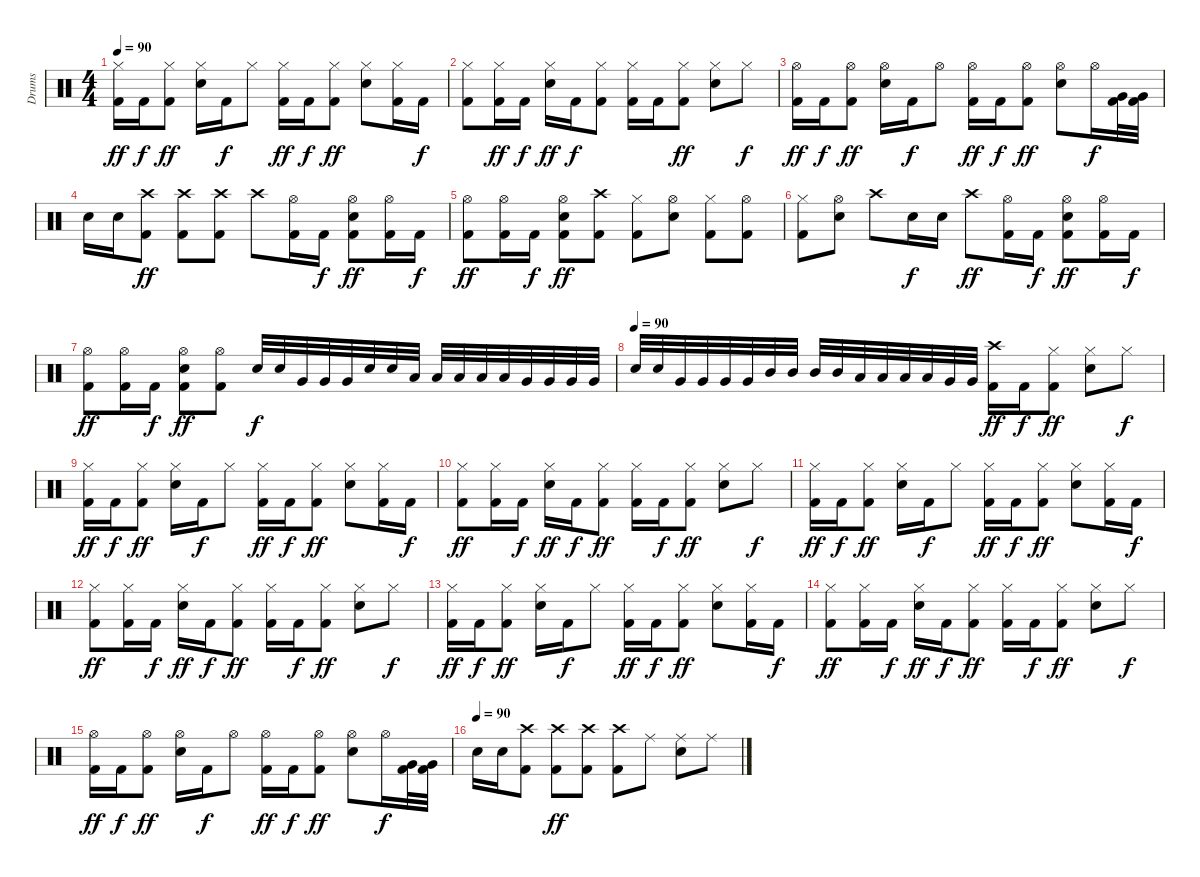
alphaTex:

\track ("Drums" "Drums") {instrument percussion}
\staff {score}
\articulation defaults
\ts (4 4)
\tempo 90
\clef neutral
\ks c
("Hi-Hat (closed)" "Kick (hit) 2").16{dy ff} "Kick (hit) 2".16{dy f} ("Hi-Hat (closed)" "Kick (hit) 2").8{dy ff} ("Hi-Hat (closed)" "Electric Snare (hit)").16 "Kick (hit) 2".16{dy f} "Hi-Hat (closed)".8 ("Hi-Hat (closed)" "Kick (hit) 2").16{dy ff} "Kick (hit) 2".16{dy f} ("Hi-Hat (closed)" "Kick (hit) 2").8{dy ff} ("Hi-Hat (closed)" "Electric Snare (hit)").8 ("Hi-Hat (closed)" "Kick (hit) 2").16 "Kick (hit) 2".16{dy f} |
("Hi-Hat (closed)" "Kick (hit) 2").8 ("Hi-Hat (closed)" "Kick (hit) 2").16{dy ff} "Kick (hit) 2".16{dy f} ("Hi-Hat (closed)" "Electric Snare (hit)").16{dy ff} "Kick (hit) 2".16{dy f} ("Hi-Hat (closed)" "Kick (hit) 2").8 ("Hi-Hat (closed)" "Kick (hit) 2").16 "Kick (hit) 2".16 ("Hi-Hat (closed)" "Kick (hit) 2").8{dy ff} ("Hi-Hat (closed)" "Electric Snare (hit)").8 "Hi-Hat (closed)".8{dy f} |
("Hi-Hat (open)" "Kick (hit) 2").16{dy ff} "Kick (hit) 2".16{dy f} ("Hi-Hat (open)" "Kick (hit) 2").8{dy ff} ("Hi-Hat (open)" "Electric Snare (hit)").16 "Kick (hit) 2".16{dy f} "Hi-Hat (open)".8 ("Hi-Hat (open)" "Kick (hit) 2").16{dy ff} "Kick (hit) 2".16{dy f} ("Hi-Hat (open)" "Kick (hit) 2").8{dy ff} ("Hi-Hat (open)" "Electric Snare (hit)").8 "Hi-Hat (open)".16{dy f} ("Very Low Tom (hit)" "Kick (hit) 2").32 ("Very Low Tom (hit)" "Kick (hit) 2").32 |
"Electric Snare (hit)".16 "Electric Snare (hit)".16 ("Crash high (hit)" "Kick (hit) 2").8{dy ff} ("Crash high (hit)" "Kick (hit) 2").8 ("Crash high (hit)" "Kick (hit) 2").8 "Crash high (hit)".8 ("Hi-Hat (open)" "Kick (hit) 2").16 "Kick (hit) 2".16{dy f} ("Hi-Hat (open)" "Electric Snare (hit)" "Kick (hit) 2").8{dy ff} ("Hi-Hat (open)" "Kick (hit) 2").16 "Kick (hit) 2".16{dy f} |
("Hi-Hat (open)" "Kick (hit) 2").8{dy ff} ("Hi-Hat (open)" "Kick (hit) 2").16 "Kick (hit) 2".16{dy f} ("Hi-Hat (open)" "Electric Snare (hit)" "Kick (hit) 2").8{dy ff} ("Crash high (hit)" "Kick (hit) 2").8 ("Hi-Hat (closed)" "Kick (hit) 2").8 ("Hi-Hat (open)" "Electric Snare (hit)").8 ("Hi-Hat (closed)" "Kick (hit) 2").8 ("Hi-Hat (open)" "Kick (hit) 2").8 |
("Hi-Hat (closed)" "Kick (hit) 2").8 ("Hi-Hat (open)" "Electric Snare (hit)").8 "Crash high (hit)".8 "Electric Snare (hit)".16{dy f} "Electric Snare (hit)".16 "Crash high (hit)".8{dy ff} ("Hi-Hat (open)" "Kick (hit) 2").16 "Kick (hit) 2".16{dy f} ("Hi-Hat (open)" "Electric Snare (hit)" "Kick (hit) 2").8{dy ff} ("Hi-Hat (open)" "Kick (hit) 2").16 "Kick (hit) 2".16{dy f} |
("Hi-Hat (open)" "Kick (hit) 2").8{dy ff} ("Hi-Hat (open)" "Kick (hit) 2").16 "Kick (hit) 2".16{dy f} ("Hi-Hat (open)" "Electric Snare (hit)" "Kick (hit) 2").8{dy ff} ("Hi-Hat (open)" "Kick (hit) 2").8 "Electric Snare (hit)".32{dy f} "Electric Snare (hit)".32 "Very Low Tom (hit)".32 "Very Low Tom (hit)".32 "Very Low Tom (hit)".32 "Electric Snare (hit)".32 "Electric Snare (hit)".32 "Low Tom (hit)".32 "Low Tom (hit)".32 "Low Tom (hit)".32 "Low Tom (hit)".32 "Low Tom (hit)".32 "Very Low Tom (hit)".32 "Very Low Tom (hit)".32 "Very Low Tom (hit)".32 "Very Low Tom (hit)".32 |
\tempo (90)
"Electric Snare (hit)".32 "Electric Snare (hit)".32 "Very Low Tom (hit)".32 "Very Low Tom (hit)".32 "Very Low Tom (hit)".32 "Very Low Tom (hit)".32 "Mid Tom (hit)".32 "Mid Tom (hit)".32 "Mid Tom (hit)".32 "Mid Tom (hit)".32 "Low Tom (hit)".32 "Low Tom (hit)".32 "Low Tom (hit)".32 "Low Tom (hit)".32 "Very Low Tom (hit)".32 "Very Low Tom (hit)".32 ("Crash high (hit)" "Kick (hit) 2").16{dy ff} "Kick (hit) 2".16{dy f} ("Hi-Hat (closed)" "Kick (hit) 2").8{dy ff} ("Hi-Hat (closed)" "Electric Snare (hit)").8 "Hi-Hat (closed)".8{dy f} |
("Hi-Hat (closed)" "Kick (hit) 2").16{dy ff} "Kick (hit) 2".16{dy f} ("Hi-Hat (closed)" "Kick (hit) 2").8{dy ff} ("Hi-Hat (closed)" "Electric Snare (hit)").16 "Kick (hit) 2".16{dy f} "Hi-Hat (closed)".8 ("Hi-Hat (closed)" "Kick (hit) 2").16{dy ff} "Kick (hit) 2".16{dy f} ("Hi-Hat (closed)" "Kick (hit) 2").8{dy ff} ("Hi-Hat (closed)" "Electric Snare (hit)").8 ("Hi-Hat (closed)" "Kick (hit) 2").16 "Kick (hit) 2".16{dy f} |
("Hi-Hat (closed)" "Kick (hit) 2").8{dy ff} ("Hi-Hat (closed)" "Kick (hit) 2").16 "Kick (hit) 2".16{dy f} ("Hi-Hat (closed)" "Electric Snare (hit)").16{dy ff} "Kick (hit) 2".16{dy f} ("Hi-Hat (closed)" "Kick (hit) 2").8{dy ff} ("Hi-Hat (closed)" "Kick (hit) 2").16 "Kick (hit) 2".16{dy f} ("Hi-Hat (closed)" "Kick (hit) 2").8{dy ff} ("Hi-Hat (closed)" "Electric Snare (hit)").8 "Hi-Hat (closed)".8{dy f} |
("Hi-Hat (closed)" "Kick (hit) 2").16{dy ff} "Kick (hit) 2".16{dy f} ("Hi-Hat (closed)" "Kick (hit) 2").8{dy ff} ("Hi-Hat (closed)" "Electric Snare (hit)").16 "Kick (hit) 2".16{dy f} "Hi-Hat (closed)".8 ("Hi-Hat (closed)" "Kick (hit) 2").16{dy ff} "Kick (hit) 2".16{dy f} ("Hi-Hat (closed)" "Kick (hit) 2").8{dy ff} ("Hi-Hat (closed)" "Electric Snare (hit)").8 ("Hi-Hat (closed)" "Kick (hit) 2").16 "Kick (hit) 2".16{dy f} |
("Hi-Hat (closed)" "Kick (hit) 2").8{dy ff} ("Hi-Hat (closed)" "Kick (hit) 2").16 "Kick (hit) 2".16{dy f} ("Hi-Hat (closed)" "Electric Snare (hit)").16{dy ff} "Kick (hit) 2".16{dy f} ("Hi-Hat (closed)" "Kick (hit) 2").8{dy ff} ("Hi-Hat (closed)" "Kick (hit) 2").16 "Kick (hit) 2".16{dy f} ("Hi-Hat (closed)" "Kick (hit) 2").8{dy ff} ("Hi-Hat (closed)" "Electric Snare (hit)").8 "Hi-Hat (closed)".8{dy f} |
("Hi-Hat (closed)" "Kick (hit) 2").16{dy ff} "Kick (hit) 2".16{dy f} ("Hi-Hat (closed)" "Kick (hit) 2").8{dy ff} ("Hi-Hat (closed)" "Electric Snare (hit)").16 "Kick (hit) 2".16{dy f} "Hi-Hat (closed)".8 ("Hi-Hat (closed)" "Kick (hit) 2").16{dy ff} "Kick (hit) 2".16{dy f} ("Hi-Hat (closed)" "Kick (hit) 2").8{dy ff} ("Hi-Hat (closed)" "Electric Snare (hit)").8 ("Hi-Hat (closed)" "Kick (hit) 2").16 "Kick (hit) 2".16{dy f} |
("Hi-Hat (closed)" "Kick (hit) 2").8{dy ff} ("Hi-Hat (closed)" "Kick (hit) 2").16 "Kick (hit) 2".16{dy f} ("Hi-Hat (closed)" "Electric Snare (hit)").16{dy ff} "Kick (hit) 2".16{dy f} ("Hi-Hat (closed)" "Kick (hit) 2").8{dy ff} ("Hi-Hat (closed)" "Kick (hit) 2").16 "Kick (hit) 2".16{dy f} ("Hi-Hat (closed)" "Kick (hit) 2").8{dy ff} ("Hi-Hat (closed)" "Electric Snare (hit)").8 "Hi-Hat (closed)".8{dy f} |
("Hi-Hat (open)" "Kick (hit) 2").16{dy ff} "Kick (hit) 2".16{dy f} ("Hi-Hat (open)" "Kick (hit) 2").8{dy ff} ("Hi-Hat (open)" "Electric Snare (hit)").16 "Kick (hit) 2".16{dy f} "Hi-Hat (open)".8 ("Hi-Hat (open)" "Kick (hit) 2").16{dy ff} "Kick (hit) 2".16{dy f} ("Hi-Hat (open)" "Kick (hit) 2").8{dy ff} ("Hi-Hat (open)" "Electric Snare (hit)").8 "Hi-Hat (open)".16{dy f} ("Very Low Tom (hit)" "Kick (hit) 2").32 ("Very Low Tom (hit)" "Kick (hit) 2").32 |
\tempo (90)
"Electric Snare (hit)".16 "Electric Snare (hit)".16 ("Crash high (hit)" "Kick (hit) 2").8 ("Crash high (hit)" "Kick (hit) 2").8{dy ff} ("Crash high (hit)" "Kick (hit) 2").8 ("Crash high (hit)" "Kick (hit) 2").8 "Ride (middle)".8 ("Ride (middle)" "Electric Snare (hit)").8 "Ride (middle)".8
